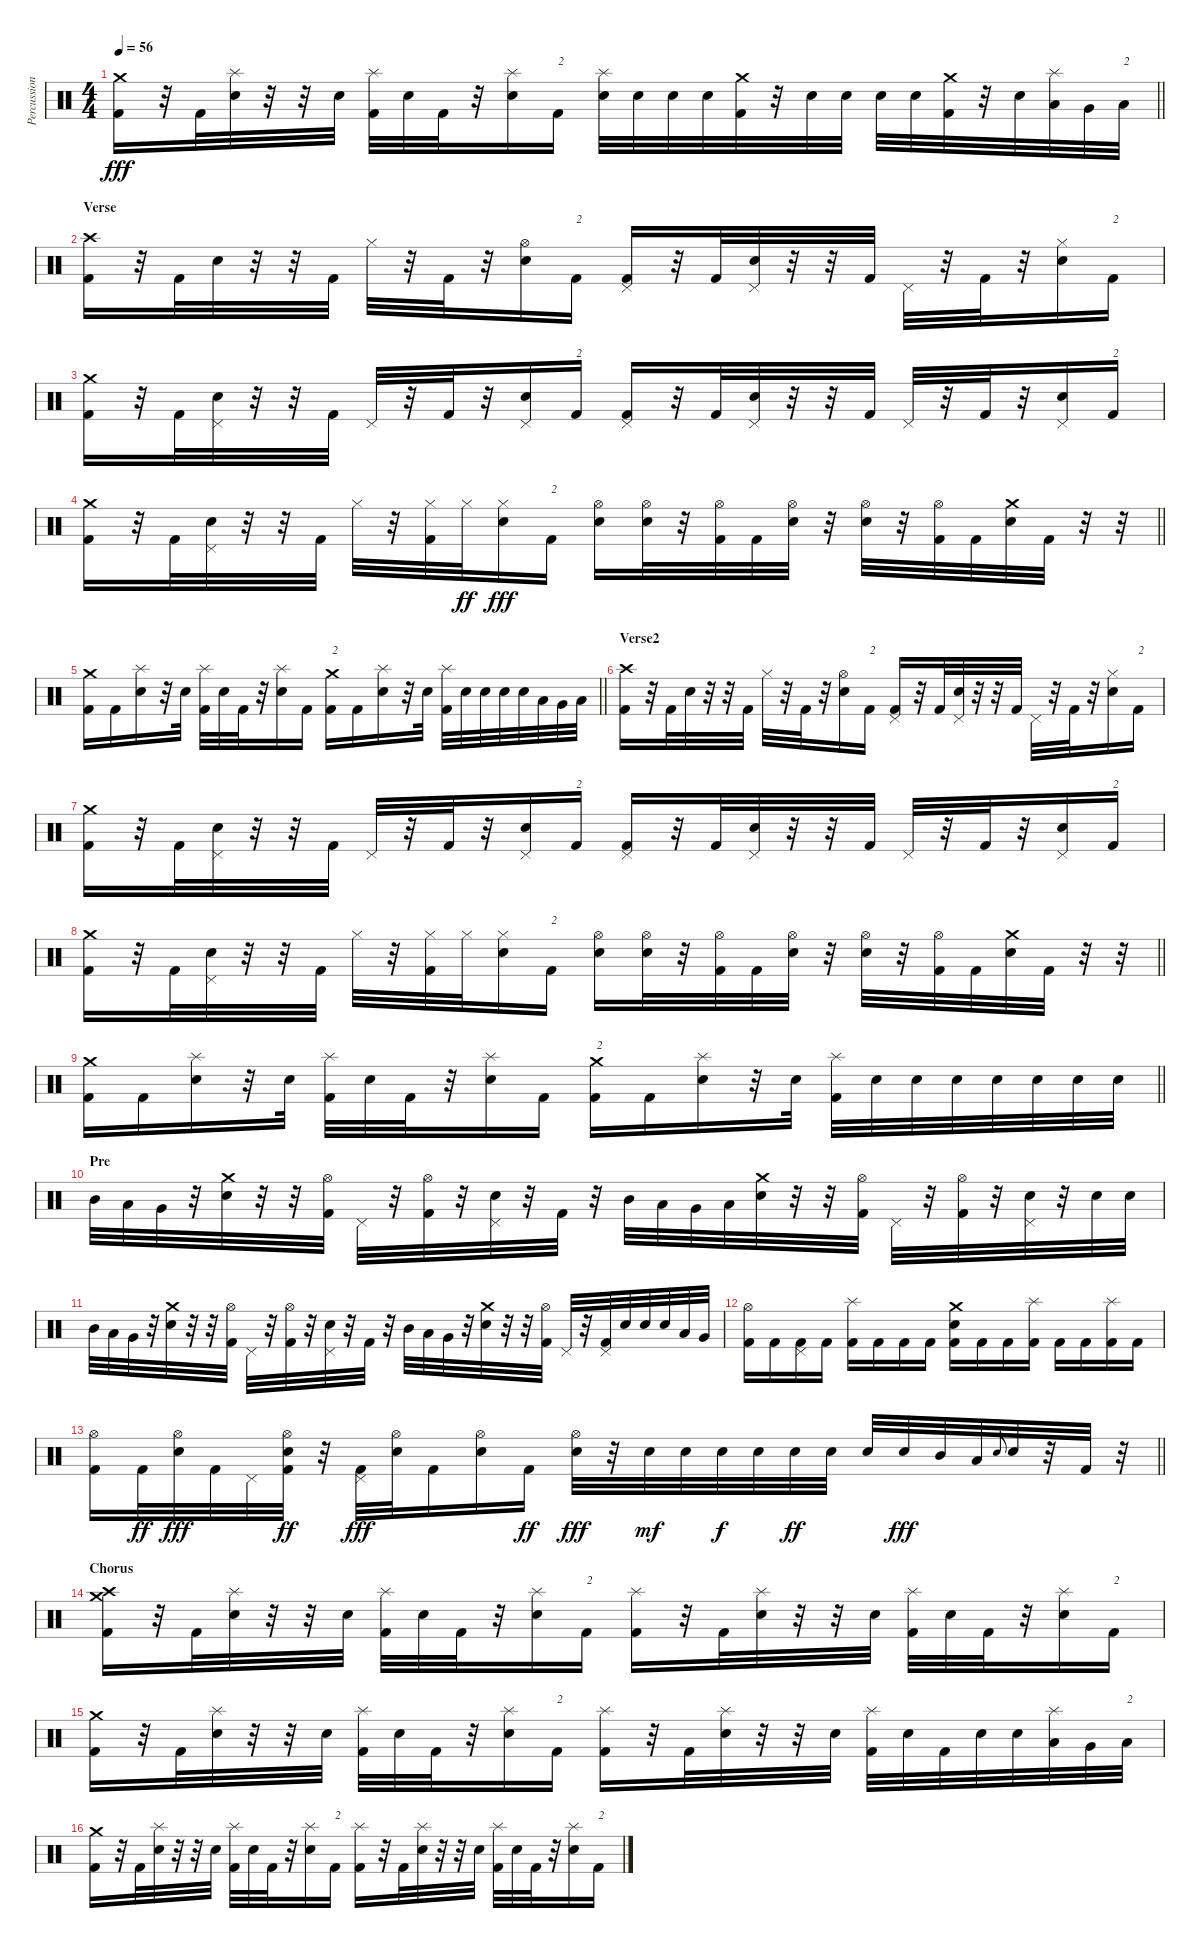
\track ("Percussion" "Percussion") {instrument percussion}
\staff {score}
\articulation defaults
\ts (4 4)
\tempo 56
\clef neutral
\barLineRight lightlight
\ks c
("Crash medium (hit)" "Kick (hit) 2").16{dy fff} r.32 "Kick (hit) 2".32 ("Splash (hit)" "Electric Snare (hit)").32 r.32 r.32 "Electric Snare (hit)".32 ("Splash (hit)" "Kick (hit) 2").32 "Electric Snare (hit)".32 "Kick (hit) 2".32 r.32 ("Splash (hit)" "Electric Snare (hit)").16 "Kick (hit) 2".16{txt "2"} ("Splash (hit)" "Electric Snare (hit)").32 "Electric Snare (hit)".32 "Electric Snare (hit)".32 "Electric Snare (hit)".32 ("Crash medium (hit)" "Kick (hit) 2").32 r.32 "Electric Snare (hit)".32 "Electric Snare (hit)".32 "Electric Snare (hit)".32 "Electric Snare (hit)".32 ("Crash medium (hit)" "Kick (hit) 2").32 r.32 "Electric Snare (hit)".32 ("Splash (hit)" "Low Tom (hit)").32 "Very Low Tom (hit)".32 "Low Floor Tom (hit)".32{txt "2"} |
\section ("" "Verse")
("Crash high (hit)" "Kick (hit) 2").16 r.32 "Kick (hit) 2".32 "Electric Snare (hit)".32 r.32 r.32 "Kick (hit) 2".32 "Hi-Hat (closed)".32 r.32 "Kick (hit) 2".32 r.32 ("Hi-Hat (open)" "Electric Snare (hit)").16 "Kick (hit) 2".16{txt "2"} ("Pedal Hi-Hat (hit)" "Kick (hit) 2").16 r.32 "Kick (hit) 2".32 ("Pedal Hi-Hat (hit)" "Electric Snare (hit)").32 r.32 r.32 "Kick (hit) 2".32 "Pedal Hi-Hat (hit)".32 r.32 "Kick (hit) 2".32 r.32 ("Hi-Hat (closed)" "Electric Snare (hit)").16 "Kick (hit) 2".16{txt "2"} |
("Crash medium (hit)" "Kick (hit) 2").16 r.32 "Kick (hit) 2".32 ("Pedal Hi-Hat (hit)" "Electric Snare (hit)").32 r.32 r.32 "Kick (hit) 2".32 "Pedal Hi-Hat (hit)".32 r.32 "Kick (hit) 2".32 r.32 ("Pedal Hi-Hat (hit)" "Electric Snare (hit)").16 "Kick (hit) 2".16{txt "2"} ("Pedal Hi-Hat (hit)" "Kick (hit) 2").16 r.32 "Kick (hit) 2".32 ("Pedal Hi-Hat (hit)" "Electric Snare (hit)").32 r.32 r.32 "Kick (hit) 2".32 "Pedal Hi-Hat (hit)".32 r.32 "Kick (hit) 2".32 r.32 ("Pedal Hi-Hat (hit)" "Electric Snare (hit)").16 "Kick (hit) 2".16{txt "2"} |
\barLineRight lightlight
("Crash medium (hit)" "Kick (hit) 2").16 r.32 "Kick (hit) 2".32 ("Pedal Hi-Hat (hit)" "Electric Snare (hit)").32 r.32 r.32 "Kick (hit) 2".32 "Hi-Hat (closed)".32 r.32 ("Hi-Hat (closed)" "Kick (hit) 2").32 "Hi-Hat (closed)".32{dy ff} ("Hi-Hat (closed)" "Electric Snare (hit)").16{dy fff} "Kick (hit) 2".16{txt "2"} ("Hi-Hat (open)" "Electric Snare (hit)").16 ("Hi-Hat (open)" "Electric Snare (hit)").32 r.32 ("Hi-Hat (open)" "Kick (hit) 2").32 "Kick (hit) 2".32 ("Hi-Hat (open)" "Electric Snare (hit)").32 r.32 ("Hi-Hat (open)" "Electric Snare (hit)").32 r.32 ("Hi-Hat (open)" "Kick (hit) 2").32 "Kick (hit) 2".32 ("Crash medium (hit)" "Electric Snare (hit)").32 "Kick (hit) 2".32 r.32 r.32 |
\barLineRight lightlight
("Crash medium (hit)" "Kick (hit) 2").16 "Kick (hit) 2".16 ("Splash (hit)" "Electric Snare (hit)").16 r.32 "Electric Snare (hit)".32 ("Splash (hit)" "Kick (hit) 2").32 "Electric Snare (hit)".32 "Kick (hit) 2".32 r.32 ("Splash (hit)" "Electric Snare (hit)").16 "Kick (hit) 2".16 ("Crash medium (hit)" "Kick (hit) 2").16{txt "2"} "Kick (hit) 2".16 ("Splash (hit)" "Electric Snare (hit)").16 r.32 "Electric Snare (hit)".32 ("Splash (hit)" "Kick (hit) 2").32 "Electric Snare (hit)".32 "Electric Snare (hit)".32 "Electric Snare (hit)".32 "Electric Snare (hit)".32 "Low Tom (hit)".32 "Very Low Tom (hit)".32 "Low Floor Tom (hit)".32 |
\section ("" "Verse2")
("Crash high (hit)" "Kick (hit) 2").16 r.32 "Kick (hit) 2".32 "Electric Snare (hit)".32 r.32 r.32 "Kick (hit) 2".32 "Hi-Hat (closed)".32 r.32 "Kick (hit) 2".32 r.32 ("Hi-Hat (open)" "Electric Snare (hit)").16 "Kick (hit) 2".16{txt "2"} ("Pedal Hi-Hat (hit)" "Kick (hit) 2").16 r.32 "Kick (hit) 2".32 ("Pedal Hi-Hat (hit)" "Electric Snare (hit)").32 r.32 r.32 "Kick (hit) 2".32 "Pedal Hi-Hat (hit)".32 r.32 "Kick (hit) 2".32 r.32 ("Hi-Hat (closed)" "Electric Snare (hit)").16 "Kick (hit) 2".16{txt "2"} |
("Crash medium (hit)" "Kick (hit) 2").16 r.32 "Kick (hit) 2".32 ("Pedal Hi-Hat (hit)" "Electric Snare (hit)").32 r.32 r.32 "Kick (hit) 2".32 "Pedal Hi-Hat (hit)".32 r.32 "Kick (hit) 2".32 r.32 ("Pedal Hi-Hat (hit)" "Electric Snare (hit)").16 "Kick (hit) 2".16{txt "2"} ("Pedal Hi-Hat (hit)" "Kick (hit) 2").16 r.32 "Kick (hit) 2".32 ("Pedal Hi-Hat (hit)" "Electric Snare (hit)").32 r.32 r.32 "Kick (hit) 2".32 "Pedal Hi-Hat (hit)".32 r.32 "Kick (hit) 2".32 r.32 ("Pedal Hi-Hat (hit)" "Electric Snare (hit)").16 "Kick (hit) 2".16{txt "2"} |
\barLineRight lightlight
("Crash medium (hit)" "Kick (hit) 2").16 r.32 "Kick (hit) 2".32 ("Pedal Hi-Hat (hit)" "Electric Snare (hit)").32 r.32 r.32 "Kick (hit) 2".32 "Hi-Hat (closed)".32 r.32 ("Hi-Hat (closed)" "Kick (hit) 2").32 "Hi-Hat (closed)".32 ("Hi-Hat (closed)" "Electric Snare (hit)").16 "Kick (hit) 2".16{txt "2"} ("Hi-Hat (open)" "Electric Snare (hit)").16 ("Hi-Hat (open)" "Electric Snare (hit)").32 r.32 ("Hi-Hat (open)" "Kick (hit) 2").32 "Kick (hit) 2".32 ("Hi-Hat (open)" "Electric Snare (hit)").32 r.32 ("Hi-Hat (open)" "Electric Snare (hit)").32 r.32 ("Hi-Hat (open)" "Kick (hit) 2").32 "Kick (hit) 2".32 ("Crash medium (hit)" "Electric Snare (hit)").32 "Kick (hit) 2".32 r.32 r.32 |
\barLineRight lightlight
("Crash medium (hit)" "Kick (hit) 2").16 "Kick (hit) 2".16 ("Splash (hit)" "Electric Snare (hit)").16 r.32 "Electric Snare (hit)".32 ("Splash (hit)" "Kick (hit) 2").32 "Electric Snare (hit)".32 "Kick (hit) 2".32 r.32 ("Splash (hit)" "Electric Snare (hit)").16 "Kick (hit) 2".16 ("Crash medium (hit)" "Kick (hit) 2").16{txt "2"} "Kick (hit) 2".16 ("Splash (hit)" "Electric Snare (hit)").16 r.32 "Electric Snare (hit)".32 ("Splash (hit)" "Kick (hit) 2").32 "Electric Snare (hit)".32 "Electric Snare (hit)".32 "Electric Snare (hit)".32 "Electric Snare (hit)".32 "Electric Snare (hit)".32 "Electric Snare (hit)".32 "Electric Snare (hit)".32 |
\section ("" "Pre")
"Mid Tom (hit)".32 "Low Tom (hit)".32 "Very Low Tom (hit)".32 r.32 ("Crash medium (hit)" "Electric Snare (hit)").32 r.32 r.32 ("Hi-Hat (open)" "Kick (hit) 2").32 "Pedal Hi-Hat (hit)".32 r.32 ("Hi-Hat (open)" "Kick (hit) 2").32 r.32 ("Pedal Hi-Hat (hit)" "Electric Snare (hit)").32 r.32 "Kick (hit) 2".32 r.32 "Mid Tom (hit)".32 "Low Tom (hit)".32 "Very Low Tom (hit)".32 "Low Floor Tom (hit)".32 ("Crash medium (hit)" "Electric Snare (hit)").32 r.32 r.32 ("Hi-Hat (open)" "Kick (hit) 2").32 "Pedal Hi-Hat (hit)".32 r.32 ("Hi-Hat (open)" "Kick (hit) 2").32 r.32 ("Pedal Hi-Hat (hit)" "Electric Snare (hit)").32 r.32 "Electric Snare (hit)".32 "Electric Snare (hit)".32 |
"Mid Tom (hit)".32 "Low Tom (hit)".32 "Very Low Tom (hit)".32 r.32 ("Crash medium (hit)" "Electric Snare (hit)").32 r.32 r.32 ("Hi-Hat (open)" "Kick (hit) 2").32 "Pedal Hi-Hat (hit)".32 r.32 ("Hi-Hat (open)" "Kick (hit) 2").32 r.32 ("Pedal Hi-Hat (hit)" "Electric Snare (hit)").32 r.32 "Kick (hit) 2".32 r.32 "Mid Tom (hit)".32 "Low Tom (hit)".32 "Very Low Tom (hit)".32 r.32 ("Crash medium (hit)" "Electric Snare (hit)").32 r.32 r.32 ("Hi-Hat (open)" "Kick (hit) 2").32 "Pedal Hi-Hat (hit)".32 r.32 ("Pedal Hi-Hat (hit)" "Kick (hit) 2").32 "Electric Snare (hit)".32 "Electric Snare (hit)".32 "Electric Snare (hit)".32 "Low Tom (hit)".32 "Very Low Tom (hit)".32 |
("Hi-Hat (open)" "Kick (hit) 2").16 "Kick (hit) 2".16 ("Pedal Hi-Hat (hit)" "Kick (hit) 2").16 "Kick (hit) 2".16 ("Splash (hit)" "Kick (hit) 2").16 "Kick (hit) 2".16 "Kick (hit) 2".16 "Kick (hit) 2".16 ("Crash medium (hit)" "Electric Snare (hit)" "Kick (hit) 2").16 "Kick (hit) 2".16 "Kick (hit) 2".16 ("Splash (hit)" "Kick (hit) 2").16 "Kick (hit) 2".16 "Kick (hit) 2".16 ("Splash (hit)" "Kick (hit) 2").16 "Kick (hit) 2".16 |
\barLineRight lightlight
("Hi-Hat (open)" "Kick (hit) 2").16 "Kick (hit) 2".32{dy ff} ("Hi-Hat (open)" "Electric Snare (hit)").32{dy fff} "Kick (hit) 2".32 "Pedal Hi-Hat (hit)".32 ("Hi-Hat (open)" "Electric Snare (hit)" "Kick (hit) 2").32{dy ff} r.32 ("Pedal Hi-Hat (hit)" "Kick (hit) 2").32{dy fff} ("Hi-Hat (open)" "Electric Snare (hit)").32 "Kick (hit) 2".16 ("Hi-Hat (open)" "Electric Snare (hit)").16 "Kick (hit) 2".16{dy ff} ("Hi-Hat (open)" "Electric Snare (hit)").32{dy fff} r.32 "Electric Snare (hit)".32{dy mf} "Electric Snare (hit)".32 "Electric Snare (hit)".32{dy f} "Electric Snare (hit)".32 "Electric Snare (hit)".32{dy ff} "Electric Snare (hit)".32 "Electric Snare (hit)".32 "Electric Snare (hit)".32{dy fff} "Mid Tom (hit)".32 "Low Tom (hit)".32 "Electric Snare (hit)".8{gr onbeat} "Electric Snare (hit)".32 r.32 "Kick (hit) 2".32 r.32 |
\section ("" "Chorus")
("Crash medium (hit)" "Crash high (hit)" "Kick (hit) 2").16 r.32 "Kick (hit) 2".32 ("Splash (hit)" "Electric Snare (hit)").32 r.32 r.32 "Electric Snare (hit)".32 ("Splash (hit)" "Kick (hit) 2").32 "Electric Snare (hit)".32 "Kick (hit) 2".32 r.32 ("Splash (hit)" "Electric Snare (hit)").16 "Kick (hit) 2".16{txt "2"} ("Splash (hit)" "Kick (hit) 2").16 r.32 "Kick (hit) 2".32 ("Splash (hit)" "Electric Snare (hit)").32 r.32 r.32 "Electric Snare (hit)".32 ("Splash (hit)" "Kick (hit) 2").32 "Electric Snare (hit)".32 "Kick (hit) 2".32 r.32 ("Splash (hit)" "Electric Snare (hit)").16 "Kick (hit) 2".16{txt "2"} |
("Crash medium (hit)" "Kick (hit) 2").16 r.32 "Kick (hit) 2".32 ("Splash (hit)" "Electric Snare (hit)").32 r.32 r.32 "Electric Snare (hit)".32 ("Splash (hit)" "Kick (hit) 2").32 "Electric Snare (hit)".32 "Kick (hit) 2".32 r.32 ("Splash (hit)" "Electric Snare (hit)").16 "Kick (hit) 2".16{txt "2"} ("Splash (hit)" "Kick (hit) 2").16 r.32 "Kick (hit) 2".32 ("Splash (hit)" "Electric Snare (hit)").32 r.32 r.32 "Electric Snare (hit)".32 ("Splash (hit)" "Kick (hit) 2").32 "Electric Snare (hit)".32 "Kick (hit) 2".32 "Electric Snare (hit)".32 "Electric Snare (hit)".32 ("Splash (hit)" "Low Tom (hit)").32 "Very Low Tom (hit)".32 "Low Floor Tom (hit)".32{txt "2"} |
("Crash medium (hit)" "Kick (hit) 2").16 r.32 "Kick (hit) 2".32 ("Splash (hit)" "Electric Snare (hit)").32 r.32 r.32 "Electric Snare (hit)".32 ("Splash (hit)" "Kick (hit) 2").32 "Electric Snare (hit)".32 "Kick (hit) 2".32 r.32 ("Splash (hit)" "Electric Snare (hit)").16 "Kick (hit) 2".16{txt "2"} ("Splash (hit)" "Kick (hit) 2").16 r.32 "Kick (hit) 2".32 ("Splash (hit)" "Electric Snare (hit)").32 r.32 r.32 "Electric Snare (hit)".32 ("Splash (hit)" "Kick (hit) 2").32 "Electric Snare (hit)".32 "Kick (hit) 2".32 r.32 ("Splash (hit)" "Electric Snare (hit)").16 "Kick (hit) 2".16{txt "2"}
